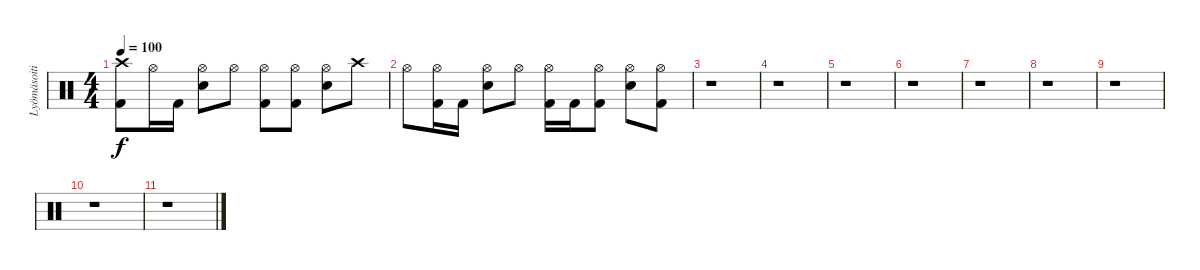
\track ("Lyömäsoitin" "Lyömäsoiti") {instrument percussion}
\staff {score}
\articulation defaults
\ts (4 4)
\tempo 100
\clef neutral
\ks c
("Crash high (hit)" "Kick (hit) 2").8{dy f} "Hi-Hat (open)".16 "Kick (hit) 2".16 ("Hi-Hat (open)" "Snare (hit) 2").8 "Hi-Hat (open)".8 ("Hi-Hat (open)" "Kick (hit) 2").8 ("Hi-Hat (open)" "Kick (hit) 2").8 ("Hi-Hat (open)" "Snare (hit) 2").8 "Crash high (hit)".8 |
"Hi-Hat (open)".8 ("Hi-Hat (open)" "Kick (hit) 2").16 "Kick (hit) 2".16 ("Hi-Hat (open)" "Snare (hit) 2").8 "Hi-Hat (open)".8 ("Hi-Hat (open)" "Kick (hit) 2").16 "Kick (hit) 2".16 ("Hi-Hat (open)" "Kick (hit) 2").8 ("Hi-Hat (open)" "Snare (hit) 2").8 ("Hi-Hat (open)" "Kick (hit) 2").8 |
r.1 |
r.1 |
r.1 |
r.1 |
r.1 |
r.1 |
r.1 |
r.1 |
r.1
